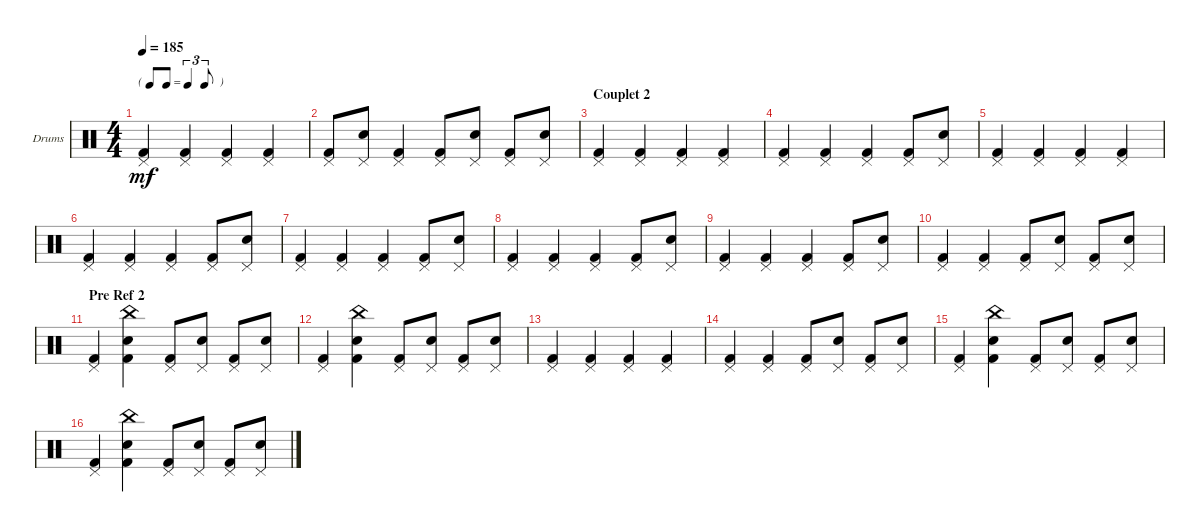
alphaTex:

\defaultSystemsLayout 4
\bracketExtendMode groupsimilarinstruments
\firstSystemTrackNameOrientation horizontal
\otherSystemsTrackNameOrientation horizontal
\track ("Batterie" "Drums") {instrument percussion}
\staff {score}
\articulation defaults
\ts (4 4)
\tf triplet8th
\tempo 185
\clef neutral
\ks c
("Kick (hit) 2" "Pedal Hi-Hat (hit)").4{dy mf} ("Kick (hit) 2" "Pedal Hi-Hat (hit)").4 ("Kick (hit) 2" "Pedal Hi-Hat (hit)").4 ("Kick (hit) 2" "Pedal Hi-Hat (hit)").4 |
("Kick (hit) 2" "Pedal Hi-Hat (hit)").8 ("Pedal Hi-Hat (hit)" "Snare (hit) 2").8 ("Kick (hit) 2" "Pedal Hi-Hat (hit)").4 ("Kick (hit) 2" "Pedal Hi-Hat (hit)").8 ("Pedal Hi-Hat (hit)" "Snare (hit) 2").8 ("Kick (hit) 2" "Pedal Hi-Hat (hit)").8 ("Pedal Hi-Hat (hit)" "Snare (hit) 2").8 |
\section ("" "Couplet 2")
("Kick (hit) 2" "Pedal Hi-Hat (hit)").4 ("Kick (hit) 2" "Pedal Hi-Hat (hit)").4 ("Kick (hit) 2" "Pedal Hi-Hat (hit)").4 ("Kick (hit) 2" "Pedal Hi-Hat (hit)").4 |
("Kick (hit) 2" "Pedal Hi-Hat (hit)").4 ("Kick (hit) 2" "Pedal Hi-Hat (hit)").4 ("Kick (hit) 2" "Pedal Hi-Hat (hit)").4 ("Kick (hit) 2" "Pedal Hi-Hat (hit)").8 ("Pedal Hi-Hat (hit)" "Snare (hit) 2").8 |
("Kick (hit) 2" "Pedal Hi-Hat (hit)").4 ("Kick (hit) 2" "Pedal Hi-Hat (hit)").4 ("Kick (hit) 2" "Pedal Hi-Hat (hit)").4 ("Kick (hit) 2" "Pedal Hi-Hat (hit)").4 |
("Kick (hit) 2" "Pedal Hi-Hat (hit)").4 ("Kick (hit) 2" "Pedal Hi-Hat (hit)").4 ("Kick (hit) 2" "Pedal Hi-Hat (hit)").4 ("Kick (hit) 2" "Pedal Hi-Hat (hit)").8 ("Pedal Hi-Hat (hit)" "Snare (hit) 2").8 |
("Kick (hit) 2" "Pedal Hi-Hat (hit)").4 ("Kick (hit) 2" "Pedal Hi-Hat (hit)").4 ("Kick (hit) 2" "Pedal Hi-Hat (hit)").4 ("Kick (hit) 2" "Pedal Hi-Hat (hit)").8 ("Pedal Hi-Hat (hit)" "Snare (hit) 2").8 |
("Kick (hit) 2" "Pedal Hi-Hat (hit)").4 ("Kick (hit) 2" "Pedal Hi-Hat (hit)").4 ("Kick (hit) 2" "Pedal Hi-Hat (hit)").4 ("Kick (hit) 2" "Pedal Hi-Hat (hit)").8 ("Pedal Hi-Hat (hit)" "Snare (hit) 2").8 |
("Kick (hit) 2" "Pedal Hi-Hat (hit)").4 ("Kick (hit) 2" "Pedal Hi-Hat (hit)").4 ("Kick (hit) 2" "Pedal Hi-Hat (hit)").4 ("Kick (hit) 2" "Pedal Hi-Hat (hit)").8 ("Pedal Hi-Hat (hit)" "Snare (hit) 2").8 |
("Kick (hit) 2" "Pedal Hi-Hat (hit)").4 ("Kick (hit) 2" "Pedal Hi-Hat (hit)").4 ("Kick (hit) 2" "Pedal Hi-Hat (hit)").8 ("Pedal Hi-Hat (hit)" "Snare (hit) 2").8 ("Kick (hit) 2" "Pedal Hi-Hat (hit)").8 ("Pedal Hi-Hat (hit)" "Snare (hit) 2").8 |
\section ("" "Pre Ref 2")
("Kick (hit) 2" "Pedal Hi-Hat (hit)").4 ("Snare (hit) 2" "China (hit)" "Kick (hit) 2").4 ("Kick (hit) 2" "Pedal Hi-Hat (hit)").8 ("Pedal Hi-Hat (hit)" "Snare (hit) 2").8 ("Kick (hit) 2" "Pedal Hi-Hat (hit)").8 ("Pedal Hi-Hat (hit)" "Snare (hit) 2").8 |
("Kick (hit) 2" "Pedal Hi-Hat (hit)").4 ("Snare (hit) 2" "China (hit)" "Kick (hit) 2").4 ("Kick (hit) 2" "Pedal Hi-Hat (hit)").8 ("Pedal Hi-Hat (hit)" "Snare (hit) 2").8 ("Kick (hit) 2" "Pedal Hi-Hat (hit)").8 ("Pedal Hi-Hat (hit)" "Snare (hit) 2").8 |
("Kick (hit) 2" "Pedal Hi-Hat (hit)").4 ("Kick (hit) 2" "Pedal Hi-Hat (hit)").4 ("Kick (hit) 2" "Pedal Hi-Hat (hit)").4 ("Kick (hit) 2" "Pedal Hi-Hat (hit)").4 |
("Kick (hit) 2" "Pedal Hi-Hat (hit)").4 ("Kick (hit) 2" "Pedal Hi-Hat (hit)").4 ("Kick (hit) 2" "Pedal Hi-Hat (hit)").8 ("Pedal Hi-Hat (hit)" "Snare (hit) 2").8 ("Kick (hit) 2" "Pedal Hi-Hat (hit)").8 ("Pedal Hi-Hat (hit)" "Snare (hit) 2").8 |
("Kick (hit) 2" "Pedal Hi-Hat (hit)").4 ("Snare (hit) 2" "China (hit)" "Kick (hit) 2").4 ("Kick (hit) 2" "Pedal Hi-Hat (hit)").8 ("Pedal Hi-Hat (hit)" "Snare (hit) 2").8 ("Kick (hit) 2" "Pedal Hi-Hat (hit)").8 ("Pedal Hi-Hat (hit)" "Snare (hit) 2").8 |
("Kick (hit) 2" "Pedal Hi-Hat (hit)").4 ("Snare (hit) 2" "China (hit)" "Kick (hit) 2").4 ("Kick (hit) 2" "Pedal Hi-Hat (hit)").8 ("Pedal Hi-Hat (hit)" "Snare (hit) 2").8 ("Kick (hit) 2" "Pedal Hi-Hat (hit)").8 ("Pedal Hi-Hat (hit)" "Snare (hit) 2").8
